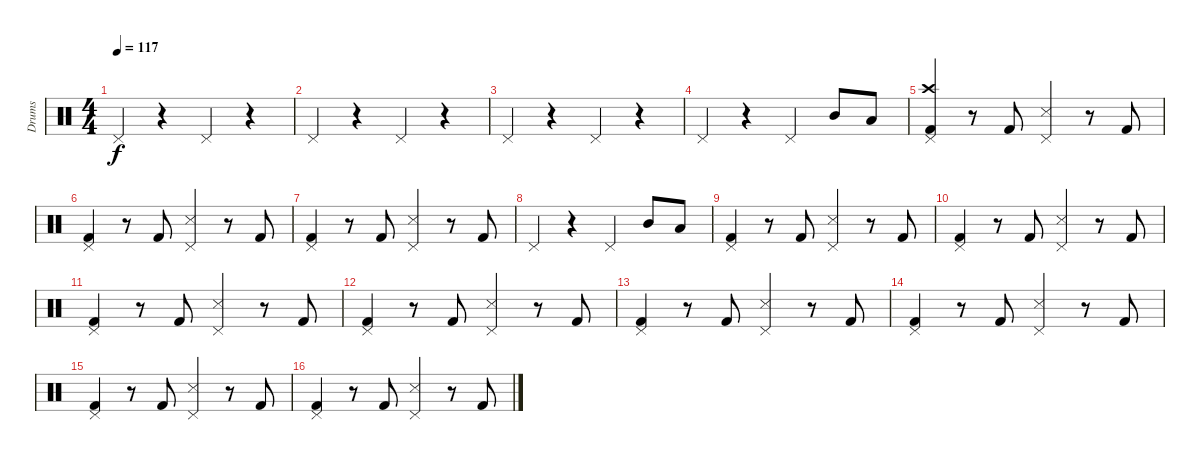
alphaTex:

\track ("Drums" "Drums") {instrument percussion}
\staff {score}
\articulation defaults
\ts (4 4)
\tempo 117
\clef neutral
\ks c "Pedal Hi-Hat (hit)".4{dy f}
r.4 "Pedal Hi-Hat (hit)".4 r.4 |
"Pedal Hi-Hat (hit)".4 r.4 "Pedal Hi-Hat (hit)".4 r.4 |
"Pedal Hi-Hat (hit)".4 r.4 "Pedal Hi-Hat (hit)".4 r.4 |
"Pedal Hi-Hat (hit)".4 r.4 "Pedal Hi-Hat (hit)".4 "Mid Tom (hit)".8 "Low Tom (hit)".8 |
("Pedal Hi-Hat (hit)" "Crash high (hit)" "Kick (hit) 2").4 r.8 "Kick (hit) 2".8 ("Pedal Hi-Hat (hit)" "Snare (side stick) 3").4 r.8 "Kick (hit) 2".8 |
("Pedal Hi-Hat (hit)" "Kick (hit) 2").4 r.8 "Kick (hit) 2".8 ("Pedal Hi-Hat (hit)" "Snare (side stick) 3").4 r.8 "Kick (hit) 2".8 |
("Pedal Hi-Hat (hit)" "Kick (hit) 2").4 r.8 "Kick (hit) 2".8 ("Pedal Hi-Hat (hit)" "Snare (side stick) 3").4 r.8 "Kick (hit) 2".8 |
"Pedal Hi-Hat (hit)".4 r.4 "Pedal Hi-Hat (hit)".4 "Mid Tom (hit)".8 "Low Tom (hit)".8 |
("Pedal Hi-Hat (hit)" "Kick (hit) 2").4 r.8 "Kick (hit) 2".8 ("Pedal Hi-Hat (hit)" "Snare (side stick) 3").4 r.8 "Kick (hit) 2".8 |
("Pedal Hi-Hat (hit)" "Kick (hit) 2").4 r.8 "Kick (hit) 2".8 ("Pedal Hi-Hat (hit)" "Snare (side stick) 3").4 r.8 "Kick (hit) 2".8 |
("Pedal Hi-Hat (hit)" "Kick (hit) 2").4 r.8 "Kick (hit) 2".8 ("Pedal Hi-Hat (hit)" "Snare (side stick) 3").4 r.8 "Kick (hit) 2".8 |
("Pedal Hi-Hat (hit)" "Kick (hit) 2").4 r.8 "Kick (hit) 2".8 ("Pedal Hi-Hat (hit)" "Snare (side stick) 3").4 r.8 "Kick (hit) 2".8 |
("Pedal Hi-Hat (hit)" "Kick (hit) 2").4 r.8 "Kick (hit) 2".8 ("Pedal Hi-Hat (hit)" "Snare (side stick) 3").4 r.8 "Kick (hit) 2".8 |
("Pedal Hi-Hat (hit)" "Kick (hit) 2").4 r.8 "Kick (hit) 2".8 ("Pedal Hi-Hat (hit)" "Snare (side stick) 3").4 r.8 "Kick (hit) 2".8 |
("Pedal Hi-Hat (hit)" "Kick (hit) 2").4 r.8 "Kick (hit) 2".8 ("Pedal Hi-Hat (hit)" "Snare (side stick) 3").4 r.8 "Kick (hit) 2".8 |
("Pedal Hi-Hat (hit)" "Kick (hit) 2").4 r.8 "Kick (hit) 2".8 ("Pedal Hi-Hat (hit)" "Snare (side stick) 3").4 r.8 "Kick (hit) 2".8
